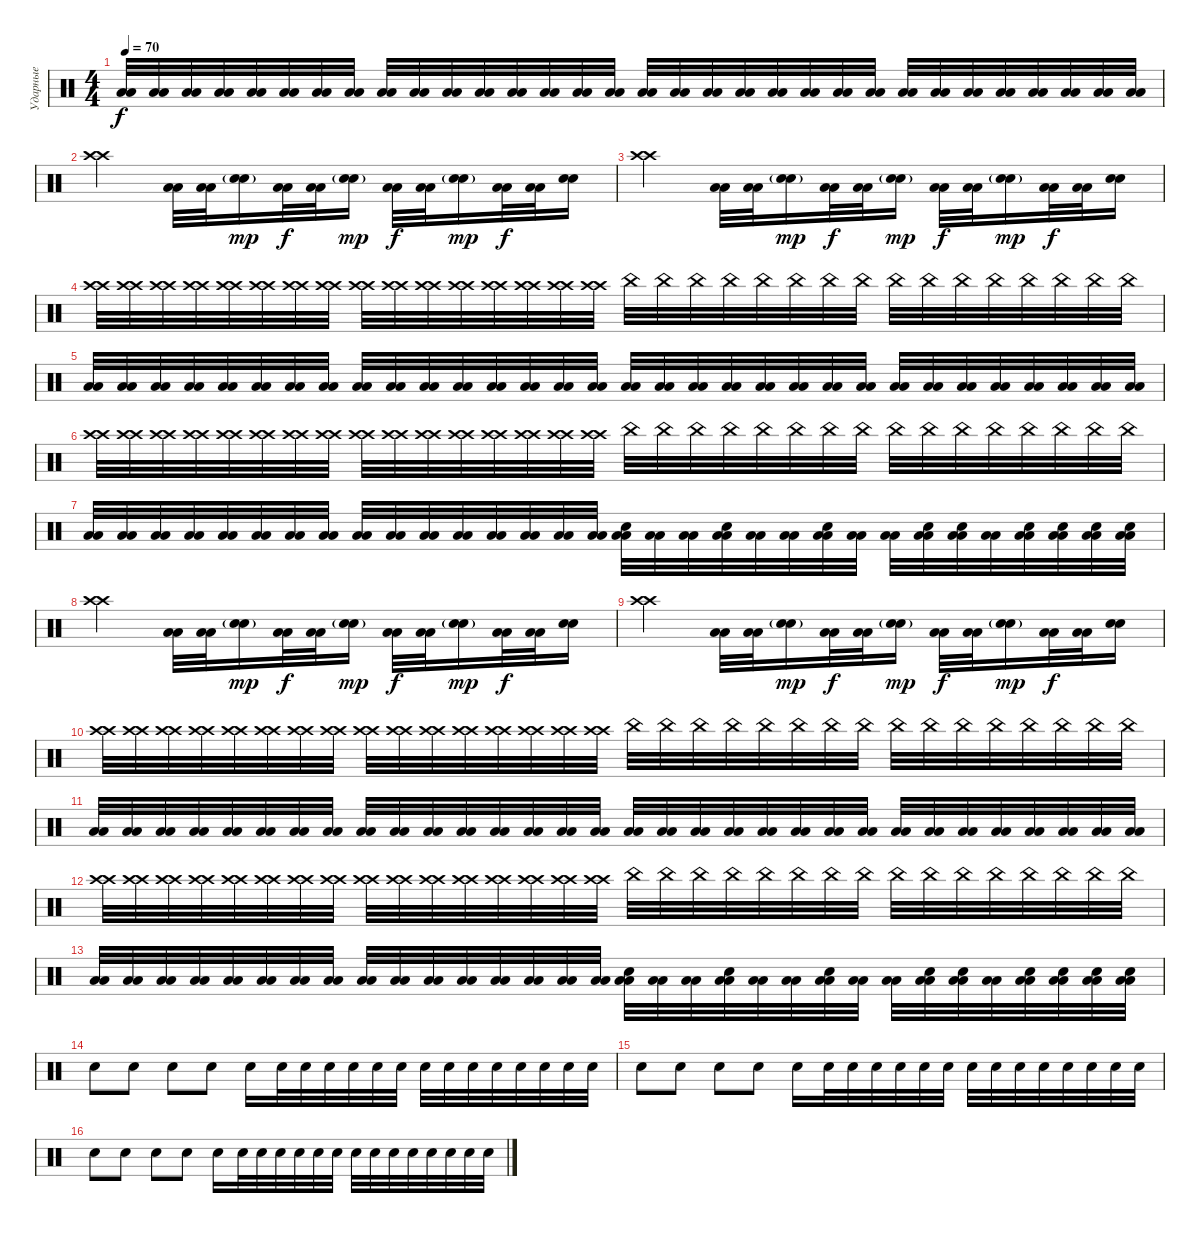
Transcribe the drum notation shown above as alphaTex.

\track ("Ударные" "Ударные") {instrument percussion}
\staff {score}
\articulation defaults
\ts (4 4)
\tempo 70
\clef neutral
\ks c
("Low Floor Tom (hit)" "Low Floor Tom (hit)").32{dy f} ("Low Floor Tom (hit)" "Low Floor Tom (hit)").32 ("Low Floor Tom (hit)" "Low Floor Tom (hit)").32 ("Low Floor Tom (hit)" "Low Floor Tom (hit)").32 ("Low Floor Tom (hit)" "Low Floor Tom (hit)").32 ("Low Floor Tom (hit)" "Low Floor Tom (hit)").32 ("Low Floor Tom (hit)" "Low Floor Tom (hit)").32 ("Low Floor Tom (hit)" "Low Floor Tom (hit)").32 ("Low Floor Tom (hit)" "Low Floor Tom (hit)").32 ("Low Floor Tom (hit)" "Low Floor Tom (hit)").32 ("Low Floor Tom (hit)" "Low Floor Tom (hit)").32 ("Low Floor Tom (hit)" "Low Floor Tom (hit)").32 ("Low Floor Tom (hit)" "Low Floor Tom (hit)").32 ("Low Floor Tom (hit)" "Low Floor Tom (hit)").32 ("Low Floor Tom (hit)" "Low Floor Tom (hit)").32 ("Low Floor Tom (hit)" "Low Floor Tom (hit)").32 ("Low Floor Tom (hit)" "Low Floor Tom (hit)").32 ("Low Floor Tom (hit)" "Low Floor Tom (hit)").32 ("Low Floor Tom (hit)" "Low Floor Tom (hit)").32 ("Low Floor Tom (hit)" "Low Floor Tom (hit)").32 ("Low Floor Tom (hit)" "Low Floor Tom (hit)").32 ("Low Floor Tom (hit)" "Low Floor Tom (hit)").32 ("Low Floor Tom (hit)" "Low Floor Tom (hit)").32 ("Low Floor Tom (hit)" "Low Floor Tom (hit)").32 ("Low Floor Tom (hit)" "Low Floor Tom (hit)").32 ("Low Floor Tom (hit)" "Low Floor Tom (hit)").32 ("Low Floor Tom (hit)" "Low Floor Tom (hit)").32 ("Low Floor Tom (hit)" "Low Floor Tom (hit)").32 ("Low Floor Tom (hit)" "Low Floor Tom (hit)").32 ("Low Floor Tom (hit)" "Low Floor Tom (hit)").32 ("Low Floor Tom (hit)" "Low Floor Tom (hit)").32 ("Low Floor Tom (hit)" "Low Floor Tom (hit)").32 |
("Crash high (hit)" "Crash high (hit)").2 ("Low Floor Tom (hit)" "Low Floor Tom (hit)").32 ("Low Floor Tom (hit)" "Low Floor Tom (hit)").32 ("Electric Snare (hit)"{g} "Electric Snare (hit)"{g}).16{dy mp} ("Low Floor Tom (hit)" "Low Floor Tom (hit)").32{dy f} ("Low Floor Tom (hit)" "Low Floor Tom (hit)").32 ("Electric Snare (hit)"{g} "Electric Snare (hit)"{g}).16{dy mp} ("Low Floor Tom (hit)" "Low Floor Tom (hit)").32{dy f} ("Low Floor Tom (hit)" "Low Floor Tom (hit)").32 ("Electric Snare (hit)"{g} "Electric Snare (hit)"{g}).16{dy mp} ("Low Floor Tom (hit)" "Low Floor Tom (hit)").32{dy f} ("Low Floor Tom (hit)" "Low Floor Tom (hit)").32 ("Electric Snare (hit)" "Electric Snare (hit)").16 |
("Crash high (hit)" "Crash high (hit)").2 ("Low Floor Tom (hit)" "Low Floor Tom (hit)").32 ("Low Floor Tom (hit)" "Low Floor Tom (hit)").32 ("Electric Snare (hit)"{g} "Electric Snare (hit)"{g}).16{dy mp} ("Low Floor Tom (hit)" "Low Floor Tom (hit)").32{dy f} ("Low Floor Tom (hit)" "Low Floor Tom (hit)").32 ("Electric Snare (hit)"{g} "Electric Snare (hit)"{g}).16{dy mp} ("Low Floor Tom (hit)" "Low Floor Tom (hit)").32{dy f} ("Low Floor Tom (hit)" "Low Floor Tom (hit)").32 ("Electric Snare (hit)"{g} "Electric Snare (hit)"{g}).16{dy mp} ("Low Floor Tom (hit)" "Low Floor Tom (hit)").32{dy f} ("Low Floor Tom (hit)" "Low Floor Tom (hit)").32 ("Electric Snare (hit)" "Electric Snare (hit)").16 |
("Crash high (hit)" "Crash high (hit)").32 ("Crash high (hit)" "Crash high (hit)").32 ("Crash high (hit)" "Crash high (hit)").32 ("Crash high (hit)" "Crash high (hit)").32 ("Crash high (hit)" "Crash high (hit)").32 ("Crash high (hit)" "Crash high (hit)").32 ("Crash high (hit)" "Crash high (hit)").32 ("Crash high (hit)" "Crash high (hit)").32 ("Crash high (hit)" "Crash high (hit)").32 ("Crash high (hit)" "Crash high (hit)").32 ("Crash high (hit)" "Crash high (hit)").32 ("Crash high (hit)" "Crash high (hit)").32 ("Crash high (hit)" "Crash high (hit)").32 ("Crash high (hit)" "Crash high (hit)").32 ("Crash high (hit)" "Crash high (hit)").32 ("Crash high (hit)" "Crash high (hit)").32 "China (hit)".32 "China (hit)".32 "China (hit)".32 "China (hit)".32 "China (hit)".32 "China (hit)".32 "China (hit)".32 "China (hit)".32 "China (hit)".32 "China (hit)".32 "China (hit)".32 "China (hit)".32 "China (hit)".32 "China (hit)".32 "China (hit)".32 "China (hit)".32 |
("Low Floor Tom (hit)" "Low Floor Tom (hit)").32 ("Low Floor Tom (hit)" "Low Floor Tom (hit)").32 ("Low Floor Tom (hit)" "Low Floor Tom (hit)").32 ("Low Floor Tom (hit)" "Low Floor Tom (hit)").32 ("Low Floor Tom (hit)" "Low Floor Tom (hit)").32 ("Low Floor Tom (hit)" "Low Floor Tom (hit)").32 ("Low Floor Tom (hit)" "Low Floor Tom (hit)").32 ("Low Floor Tom (hit)" "Low Floor Tom (hit)").32 ("Low Floor Tom (hit)" "Low Floor Tom (hit)").32 ("Low Floor Tom (hit)" "Low Floor Tom (hit)").32 ("Low Floor Tom (hit)" "Low Floor Tom (hit)").32 ("Low Floor Tom (hit)" "Low Floor Tom (hit)").32 ("Low Floor Tom (hit)" "Low Floor Tom (hit)").32 ("Low Floor Tom (hit)" "Low Floor Tom (hit)").32 ("Low Floor Tom (hit)" "Low Floor Tom (hit)").32 ("Low Floor Tom (hit)" "Low Floor Tom (hit)").32 ("Low Floor Tom (hit)" "Low Floor Tom (hit)").32 ("Low Floor Tom (hit)" "Low Floor Tom (hit)").32 ("Low Floor Tom (hit)" "Low Floor Tom (hit)").32 ("Low Floor Tom (hit)" "Low Floor Tom (hit)").32 ("Low Floor Tom (hit)" "Low Floor Tom (hit)").32 ("Low Floor Tom (hit)" "Low Floor Tom (hit)").32 ("Low Floor Tom (hit)" "Low Floor Tom (hit)").32 ("Low Floor Tom (hit)" "Low Floor Tom (hit)").32 ("Low Floor Tom (hit)" "Low Floor Tom (hit)").32 ("Low Floor Tom (hit)" "Low Floor Tom (hit)").32 ("Low Floor Tom (hit)" "Low Floor Tom (hit)").32 ("Low Floor Tom (hit)" "Low Floor Tom (hit)").32 ("Low Floor Tom (hit)" "Low Floor Tom (hit)").32 ("Low Floor Tom (hit)" "Low Floor Tom (hit)").32 ("Low Floor Tom (hit)" "Low Floor Tom (hit)").32 ("Low Floor Tom (hit)" "Low Floor Tom (hit)").32 |
("Crash high (hit)" "Crash high (hit)").32 ("Crash high (hit)" "Crash high (hit)").32 ("Crash high (hit)" "Crash high (hit)").32 ("Crash high (hit)" "Crash high (hit)").32 ("Crash high (hit)" "Crash high (hit)").32 ("Crash high (hit)" "Crash high (hit)").32 ("Crash high (hit)" "Crash high (hit)").32 ("Crash high (hit)" "Crash high (hit)").32 ("Crash high (hit)" "Crash high (hit)").32 ("Crash high (hit)" "Crash high (hit)").32 ("Crash high (hit)" "Crash high (hit)").32 ("Crash high (hit)" "Crash high (hit)").32 ("Crash high (hit)" "Crash high (hit)").32 ("Crash high (hit)" "Crash high (hit)").32 ("Crash high (hit)" "Crash high (hit)").32 ("Crash high (hit)" "Crash high (hit)").32 "China (hit)".32 "China (hit)".32 "China (hit)".32 "China (hit)".32 "China (hit)".32 "China (hit)".32 "China (hit)".32 "China (hit)".32 "China (hit)".32 "China (hit)".32 "China (hit)".32 "China (hit)".32 "China (hit)".32 "China (hit)".32 "China (hit)".32 "China (hit)".32 |
("Low Floor Tom (hit)" "Low Floor Tom (hit)").32 ("Low Floor Tom (hit)" "Low Floor Tom (hit)").32 ("Low Floor Tom (hit)" "Low Floor Tom (hit)").32 ("Low Floor Tom (hit)" "Low Floor Tom (hit)").32 ("Low Floor Tom (hit)" "Low Floor Tom (hit)").32 ("Low Floor Tom (hit)" "Low Floor Tom (hit)").32 ("Low Floor Tom (hit)" "Low Floor Tom (hit)").32 ("Low Floor Tom (hit)" "Low Floor Tom (hit)").32 ("Low Floor Tom (hit)" "Low Floor Tom (hit)").32 ("Low Floor Tom (hit)" "Low Floor Tom (hit)").32 ("Low Floor Tom (hit)" "Low Floor Tom (hit)").32 ("Low Floor Tom (hit)" "Low Floor Tom (hit)").32 ("Low Floor Tom (hit)" "Low Floor Tom (hit)").32 ("Low Floor Tom (hit)" "Low Floor Tom (hit)").32 ("Low Floor Tom (hit)" "Low Floor Tom (hit)").32 ("Low Floor Tom (hit)" "Low Floor Tom (hit)").32 ("Low Floor Tom (hit)" "Low Floor Tom (hit)" "Electric Snare (hit)").32 ("Low Floor Tom (hit)" "Low Floor Tom (hit)").32 ("Low Floor Tom (hit)" "Low Floor Tom (hit)").32 ("Low Floor Tom (hit)" "Low Floor Tom (hit)" "Electric Snare (hit)").32 ("Low Floor Tom (hit)" "Low Floor Tom (hit)").32 ("Low Floor Tom (hit)" "Low Floor Tom (hit)").32 ("Low Floor Tom (hit)" "Low Floor Tom (hit)" "Electric Snare (hit)").32 ("Low Floor Tom (hit)" "Low Floor Tom (hit)").32 ("Low Floor Tom (hit)" "Low Floor Tom (hit)").32 ("Low Floor Tom (hit)" "Low Floor Tom (hit)" "Electric Snare (hit)").32 ("Low Floor Tom (hit)" "Low Floor Tom (hit)" "Electric Snare (hit)").32 ("Low Floor Tom (hit)" "Low Floor Tom (hit)").32 ("Low Floor Tom (hit)" "Low Floor Tom (hit)" "Electric Snare (hit)").32 ("Low Floor Tom (hit)" "Low Floor Tom (hit)" "Electric Snare (hit)").32 ("Low Floor Tom (hit)" "Low Floor Tom (hit)" "Electric Snare (hit)").32 ("Low Floor Tom (hit)" "Low Floor Tom (hit)" "Electric Snare (hit)").32 |
("Crash high (hit)" "Crash high (hit)").2 ("Low Floor Tom (hit)" "Low Floor Tom (hit)").32 ("Low Floor Tom (hit)" "Low Floor Tom (hit)").32 ("Electric Snare (hit)"{g} "Electric Snare (hit)"{g}).16{dy mp} ("Low Floor Tom (hit)" "Low Floor Tom (hit)").32{dy f} ("Low Floor Tom (hit)" "Low Floor Tom (hit)").32 ("Electric Snare (hit)"{g} "Electric Snare (hit)"{g}).16{dy mp} ("Low Floor Tom (hit)" "Low Floor Tom (hit)").32{dy f} ("Low Floor Tom (hit)" "Low Floor Tom (hit)").32 ("Electric Snare (hit)"{g} "Electric Snare (hit)"{g}).16{dy mp} ("Low Floor Tom (hit)" "Low Floor Tom (hit)").32{dy f} ("Low Floor Tom (hit)" "Low Floor Tom (hit)").32 ("Electric Snare (hit)" "Electric Snare (hit)").16 |
("Crash high (hit)" "Crash high (hit)").2 ("Low Floor Tom (hit)" "Low Floor Tom (hit)").32 ("Low Floor Tom (hit)" "Low Floor Tom (hit)").32 ("Electric Snare (hit)"{g} "Electric Snare (hit)"{g}).16{dy mp} ("Low Floor Tom (hit)" "Low Floor Tom (hit)").32{dy f} ("Low Floor Tom (hit)" "Low Floor Tom (hit)").32 ("Electric Snare (hit)"{g} "Electric Snare (hit)"{g}).16{dy mp} ("Low Floor Tom (hit)" "Low Floor Tom (hit)").32{dy f} ("Low Floor Tom (hit)" "Low Floor Tom (hit)").32 ("Electric Snare (hit)"{g} "Electric Snare (hit)"{g}).16{dy mp} ("Low Floor Tom (hit)" "Low Floor Tom (hit)").32{dy f} ("Low Floor Tom (hit)" "Low Floor Tom (hit)").32 ("Electric Snare (hit)" "Electric Snare (hit)").16 |
("Crash high (hit)" "Crash high (hit)").32 ("Crash high (hit)" "Crash high (hit)").32 ("Crash high (hit)" "Crash high (hit)").32 ("Crash high (hit)" "Crash high (hit)").32 ("Crash high (hit)" "Crash high (hit)").32 ("Crash high (hit)" "Crash high (hit)").32 ("Crash high (hit)" "Crash high (hit)").32 ("Crash high (hit)" "Crash high (hit)").32 ("Crash high (hit)" "Crash high (hit)").32 ("Crash high (hit)" "Crash high (hit)").32 ("Crash high (hit)" "Crash high (hit)").32 ("Crash high (hit)" "Crash high (hit)").32 ("Crash high (hit)" "Crash high (hit)").32 ("Crash high (hit)" "Crash high (hit)").32 ("Crash high (hit)" "Crash high (hit)").32 ("Crash high (hit)" "Crash high (hit)").32 "China (hit)".32 "China (hit)".32 "China (hit)".32 "China (hit)".32 "China (hit)".32 "China (hit)".32 "China (hit)".32 "China (hit)".32 "China (hit)".32 "China (hit)".32 "China (hit)".32 "China (hit)".32 "China (hit)".32 "China (hit)".32 "China (hit)".32 "China (hit)".32 |
("Low Floor Tom (hit)" "Low Floor Tom (hit)").32 ("Low Floor Tom (hit)" "Low Floor Tom (hit)").32 ("Low Floor Tom (hit)" "Low Floor Tom (hit)").32 ("Low Floor Tom (hit)" "Low Floor Tom (hit)").32 ("Low Floor Tom (hit)" "Low Floor Tom (hit)").32 ("Low Floor Tom (hit)" "Low Floor Tom (hit)").32 ("Low Floor Tom (hit)" "Low Floor Tom (hit)").32 ("Low Floor Tom (hit)" "Low Floor Tom (hit)").32 ("Low Floor Tom (hit)" "Low Floor Tom (hit)").32 ("Low Floor Tom (hit)" "Low Floor Tom (hit)").32 ("Low Floor Tom (hit)" "Low Floor Tom (hit)").32 ("Low Floor Tom (hit)" "Low Floor Tom (hit)").32 ("Low Floor Tom (hit)" "Low Floor Tom (hit)").32 ("Low Floor Tom (hit)" "Low Floor Tom (hit)").32 ("Low Floor Tom (hit)" "Low Floor Tom (hit)").32 ("Low Floor Tom (hit)" "Low Floor Tom (hit)").32 ("Low Floor Tom (hit)" "Low Floor Tom (hit)").32 ("Low Floor Tom (hit)" "Low Floor Tom (hit)").32 ("Low Floor Tom (hit)" "Low Floor Tom (hit)").32 ("Low Floor Tom (hit)" "Low Floor Tom (hit)").32 ("Low Floor Tom (hit)" "Low Floor Tom (hit)").32 ("Low Floor Tom (hit)" "Low Floor Tom (hit)").32 ("Low Floor Tom (hit)" "Low Floor Tom (hit)").32 ("Low Floor Tom (hit)" "Low Floor Tom (hit)").32 ("Low Floor Tom (hit)" "Low Floor Tom (hit)").32 ("Low Floor Tom (hit)" "Low Floor Tom (hit)").32 ("Low Floor Tom (hit)" "Low Floor Tom (hit)").32 ("Low Floor Tom (hit)" "Low Floor Tom (hit)").32 ("Low Floor Tom (hit)" "Low Floor Tom (hit)").32 ("Low Floor Tom (hit)" "Low Floor Tom (hit)").32 ("Low Floor Tom (hit)" "Low Floor Tom (hit)").32 ("Low Floor Tom (hit)" "Low Floor Tom (hit)").32 |
("Crash high (hit)" "Crash high (hit)").32 ("Crash high (hit)" "Crash high (hit)").32 ("Crash high (hit)" "Crash high (hit)").32 ("Crash high (hit)" "Crash high (hit)").32 ("Crash high (hit)" "Crash high (hit)").32 ("Crash high (hit)" "Crash high (hit)").32 ("Crash high (hit)" "Crash high (hit)").32 ("Crash high (hit)" "Crash high (hit)").32 ("Crash high (hit)" "Crash high (hit)").32 ("Crash high (hit)" "Crash high (hit)").32 ("Crash high (hit)" "Crash high (hit)").32 ("Crash high (hit)" "Crash high (hit)").32 ("Crash high (hit)" "Crash high (hit)").32 ("Crash high (hit)" "Crash high (hit)").32 ("Crash high (hit)" "Crash high (hit)").32 ("Crash high (hit)" "Crash high (hit)").32 "China (hit)".32 "China (hit)".32 "China (hit)".32 "China (hit)".32 "China (hit)".32 "China (hit)".32 "China (hit)".32 "China (hit)".32 "China (hit)".32 "China (hit)".32 "China (hit)".32 "China (hit)".32 "China (hit)".32 "China (hit)".32 "China (hit)".32 "China (hit)".32 |
("Low Floor Tom (hit)" "Low Floor Tom (hit)").32 ("Low Floor Tom (hit)" "Low Floor Tom (hit)").32 ("Low Floor Tom (hit)" "Low Floor Tom (hit)").32 ("Low Floor Tom (hit)" "Low Floor Tom (hit)").32 ("Low Floor Tom (hit)" "Low Floor Tom (hit)").32 ("Low Floor Tom (hit)" "Low Floor Tom (hit)").32 ("Low Floor Tom (hit)" "Low Floor Tom (hit)").32 ("Low Floor Tom (hit)" "Low Floor Tom (hit)").32 ("Low Floor Tom (hit)" "Low Floor Tom (hit)").32 ("Low Floor Tom (hit)" "Low Floor Tom (hit)").32 ("Low Floor Tom (hit)" "Low Floor Tom (hit)").32 ("Low Floor Tom (hit)" "Low Floor Tom (hit)").32 ("Low Floor Tom (hit)" "Low Floor Tom (hit)").32 ("Low Floor Tom (hit)" "Low Floor Tom (hit)").32 ("Low Floor Tom (hit)" "Low Floor Tom (hit)").32 ("Low Floor Tom (hit)" "Low Floor Tom (hit)").32 ("Low Floor Tom (hit)" "Low Floor Tom (hit)" "Electric Snare (hit)").32 ("Low Floor Tom (hit)" "Low Floor Tom (hit)").32 ("Low Floor Tom (hit)" "Low Floor Tom (hit)").32 ("Low Floor Tom (hit)" "Low Floor Tom (hit)" "Electric Snare (hit)").32 ("Low Floor Tom (hit)" "Low Floor Tom (hit)").32 ("Low Floor Tom (hit)" "Low Floor Tom (hit)").32 ("Low Floor Tom (hit)" "Low Floor Tom (hit)" "Electric Snare (hit)").32 ("Low Floor Tom (hit)" "Low Floor Tom (hit)").32 ("Low Floor Tom (hit)" "Low Floor Tom (hit)").32 ("Low Floor Tom (hit)" "Low Floor Tom (hit)" "Electric Snare (hit)").32 ("Low Floor Tom (hit)" "Low Floor Tom (hit)" "Electric Snare (hit)").32 ("Low Floor Tom (hit)" "Low Floor Tom (hit)").32 ("Low Floor Tom (hit)" "Low Floor Tom (hit)" "Electric Snare (hit)").32 ("Low Floor Tom (hit)" "Low Floor Tom (hit)" "Electric Snare (hit)").32 ("Low Floor Tom (hit)" "Low Floor Tom (hit)" "Electric Snare (hit)").32 ("Low Floor Tom (hit)" "Low Floor Tom (hit)" "Electric Snare (hit)").32 |
"Electric Snare (hit)".8 "Electric Snare (hit)".8 "Electric Snare (hit)".8 "Electric Snare (hit)".8 "Electric Snare (hit)".16 "Electric Snare (hit)".32 "Electric Snare (hit)".32 "Electric Snare (hit)".32 "Electric Snare (hit)".32 "Electric Snare (hit)".32 "Electric Snare (hit)".32 "Electric Snare (hit)".32 "Electric Snare (hit)".32 "Electric Snare (hit)".32 "Electric Snare (hit)".32 "Electric Snare (hit)".32 "Electric Snare (hit)".32 "Electric Snare (hit)".32 "Electric Snare (hit)".32 |
"Electric Snare (hit)".8 "Electric Snare (hit)".8 "Electric Snare (hit)".8 "Electric Snare (hit)".8 "Electric Snare (hit)".16 "Electric Snare (hit)".32 "Electric Snare (hit)".32 "Electric Snare (hit)".32 "Electric Snare (hit)".32 "Electric Snare (hit)".32 "Electric Snare (hit)".32 "Electric Snare (hit)".32 "Electric Snare (hit)".32 "Electric Snare (hit)".32 "Electric Snare (hit)".32 "Electric Snare (hit)".32 "Electric Snare (hit)".32 "Electric Snare (hit)".32 "Electric Snare (hit)".32 |
"Electric Snare (hit)".8 "Electric Snare (hit)".8 "Electric Snare (hit)".8 "Electric Snare (hit)".8 "Electric Snare (hit)".16 "Electric Snare (hit)".32 "Electric Snare (hit)".32 "Electric Snare (hit)".32 "Electric Snare (hit)".32 "Electric Snare (hit)".32 "Electric Snare (hit)".32 "Electric Snare (hit)".32 "Electric Snare (hit)".32 "Electric Snare (hit)".32 "Electric Snare (hit)".32 "Electric Snare (hit)".32 "Electric Snare (hit)".32 "Electric Snare (hit)".32 "Electric Snare (hit)".32
